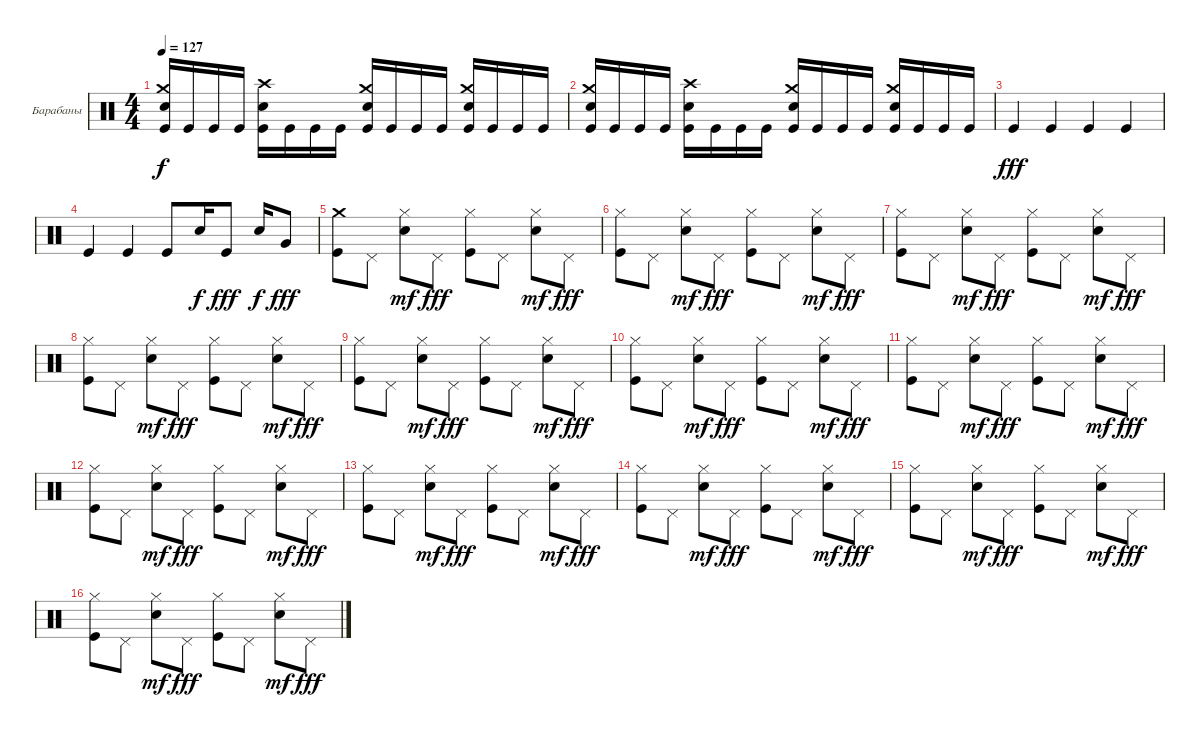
\bracketExtendMode groupsimilarinstruments
\firstSystemTrackNameOrientation horizontal
\otherSystemsTrackNameOrientation horizontal
\track ("Ударные" "Барабаны") {instrument percussion}
\staff {score}
\articulation defaults
\ts (4 4)
\tempo 127
\clef neutral
\ks c
("Kick (hit)" "Crash medium (hit)" "Snare (hit) 2").16{dy f} "Kick (hit)".16 "Kick (hit)".16 "Kick (hit)".16 ("Kick (hit)" "Crash high (hit)" "Snare (hit) 2").16 "Kick (hit)".16 "Kick (hit)".16 "Kick (hit)".16 ("Kick (hit)" "Crash medium (hit)" "Snare (hit) 2").16 "Kick (hit)".16 "Kick (hit)".16 "Kick (hit)".16 ("Kick (hit)" "Crash medium (hit)" "Snare (hit) 2").16 "Kick (hit)".16 "Kick (hit)".16 "Kick (hit)".16 |
("Kick (hit)" "Crash medium (hit)" "Snare (hit) 2").16 "Kick (hit)".16 "Kick (hit)".16 "Kick (hit)".16 ("Kick (hit)" "Crash high (hit)" "Snare (hit) 2").16 "Kick (hit)".16 "Kick (hit)".16 "Kick (hit)".16 ("Kick (hit)" "Crash medium (hit)" "Snare (hit) 2").16 "Kick (hit)".16 "Kick (hit)".16 "Kick (hit)".16 ("Kick (hit)" "Crash medium (hit)" "Snare (hit) 2").16 "Kick (hit)".16 "Kick (hit)".16 "Kick (hit)".16 |
"Kick (hit)".4{dy fff} "Kick (hit)".4 "Kick (hit)".4 "Kick (hit)".4 |
"Kick (hit)".4 "Kick (hit)".4 "Kick (hit)".8 "Snare (hit) 2".16{dy f} "Kick (hit)".8{dy fff} "Snare (hit) 2".16{dy f} "Very Low Tom (hit)".8{dy fff} |
("Kick (hit)" "Crash medium (hit)").8 "Pedal Hi-Hat (hit)".8 ("Hi-Hat (closed)" "Snare (hit) 2").8{dy mf} "Pedal Hi-Hat (hit)".8{dy fff} ("Kick (hit)" "Hi-Hat (closed)").8 "Pedal Hi-Hat (hit)".8 ("Hi-Hat (closed)" "Snare (hit) 2").8{dy mf} "Pedal Hi-Hat (hit)".8{dy fff} |
("Kick (hit)" "Hi-Hat (closed)").8 "Pedal Hi-Hat (hit)".8 ("Hi-Hat (closed)" "Snare (hit) 2").8{dy mf} "Pedal Hi-Hat (hit)".8{dy fff} ("Kick (hit)" "Hi-Hat (closed)").8 "Pedal Hi-Hat (hit)".8 ("Hi-Hat (closed)" "Snare (hit) 2").8{dy mf} "Pedal Hi-Hat (hit)".8{dy fff} |
("Kick (hit)" "Hi-Hat (closed)").8 "Pedal Hi-Hat (hit)".8 ("Hi-Hat (closed)" "Snare (hit) 2").8{dy mf} "Pedal Hi-Hat (hit)".8{dy fff} ("Kick (hit)" "Hi-Hat (closed)").8 "Pedal Hi-Hat (hit)".8 ("Hi-Hat (closed)" "Snare (hit) 2").8{dy mf} "Pedal Hi-Hat (hit)".8{dy fff} |
("Kick (hit)" "Hi-Hat (closed)").8 "Pedal Hi-Hat (hit)".8 ("Hi-Hat (closed)" "Snare (hit) 2").8{dy mf} "Pedal Hi-Hat (hit)".8{dy fff} ("Kick (hit)" "Hi-Hat (closed)").8 "Pedal Hi-Hat (hit)".8 ("Hi-Hat (closed)" "Snare (hit) 2").8{dy mf} "Pedal Hi-Hat (hit)".8{dy fff} |
("Kick (hit)" "Hi-Hat (closed)").8 "Pedal Hi-Hat (hit)".8 ("Hi-Hat (closed)" "Snare (hit) 2").8{dy mf} "Pedal Hi-Hat (hit)".8{dy fff} ("Kick (hit)" "Hi-Hat (closed)").8 "Pedal Hi-Hat (hit)".8 ("Hi-Hat (closed)" "Snare (hit) 2").8{dy mf} "Pedal Hi-Hat (hit)".8{dy fff} |
("Kick (hit)" "Hi-Hat (closed)").8 "Pedal Hi-Hat (hit)".8 ("Hi-Hat (closed)" "Snare (hit) 2").8{dy mf} "Pedal Hi-Hat (hit)".8{dy fff} ("Kick (hit)" "Hi-Hat (closed)").8 "Pedal Hi-Hat (hit)".8 ("Hi-Hat (closed)" "Snare (hit) 2").8{dy mf} "Pedal Hi-Hat (hit)".8{dy fff} |
("Kick (hit)" "Hi-Hat (closed)").8 "Pedal Hi-Hat (hit)".8 ("Hi-Hat (closed)" "Snare (hit) 2").8{dy mf} "Pedal Hi-Hat (hit)".8{dy fff} ("Kick (hit)" "Hi-Hat (closed)").8 "Pedal Hi-Hat (hit)".8 ("Hi-Hat (closed)" "Snare (hit) 2").8{dy mf} "Pedal Hi-Hat (hit)".8{dy fff} |
("Kick (hit)" "Hi-Hat (closed)").8 "Pedal Hi-Hat (hit)".8 ("Hi-Hat (closed)" "Snare (hit) 2").8{dy mf} "Pedal Hi-Hat (hit)".8{dy fff} ("Kick (hit)" "Hi-Hat (closed)").8 "Pedal Hi-Hat (hit)".8 ("Hi-Hat (closed)" "Snare (hit) 2").8{dy mf} "Pedal Hi-Hat (hit)".8{dy fff} |
("Kick (hit)" "Hi-Hat (closed)").8 "Pedal Hi-Hat (hit)".8 ("Hi-Hat (closed)" "Snare (hit) 2").8{dy mf} "Pedal Hi-Hat (hit)".8{dy fff} ("Kick (hit)" "Hi-Hat (closed)").8 "Pedal Hi-Hat (hit)".8 ("Hi-Hat (closed)" "Snare (hit) 2").8{dy mf} "Pedal Hi-Hat (hit)".8{dy fff} |
("Kick (hit)" "Hi-Hat (closed)").8 "Pedal Hi-Hat (hit)".8 ("Hi-Hat (closed)" "Snare (hit) 2").8{dy mf} "Pedal Hi-Hat (hit)".8{dy fff} ("Kick (hit)" "Hi-Hat (closed)").8 "Pedal Hi-Hat (hit)".8 ("Hi-Hat (closed)" "Snare (hit) 2").8{dy mf} "Pedal Hi-Hat (hit)".8{dy fff} |
("Kick (hit)" "Hi-Hat (closed)").8 "Pedal Hi-Hat (hit)".8 ("Hi-Hat (closed)" "Snare (hit) 2").8{dy mf} "Pedal Hi-Hat (hit)".8{dy fff} ("Kick (hit)" "Hi-Hat (closed)").8 "Pedal Hi-Hat (hit)".8 ("Hi-Hat (closed)" "Snare (hit) 2").8{dy mf} "Pedal Hi-Hat (hit)".8{dy fff} |
("Kick (hit)" "Hi-Hat (closed)").8 "Pedal Hi-Hat (hit)".8 ("Hi-Hat (closed)" "Snare (hit) 2").8{dy mf} "Pedal Hi-Hat (hit)".8{dy fff} ("Kick (hit)" "Hi-Hat (closed)").8 "Pedal Hi-Hat (hit)".8 ("Hi-Hat (closed)" "Snare (hit) 2").8{dy mf} "Pedal Hi-Hat (hit)".8{dy fff}
